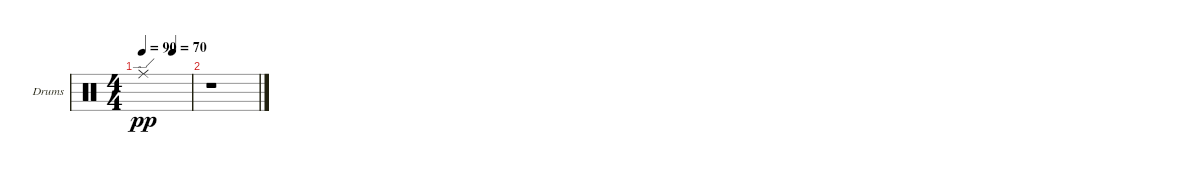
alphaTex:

\bracketExtendMode groupsimilarinstruments
\firstSystemTrackNameOrientation horizontal
\otherSystemsTrackNameOrientation horizontal
\track ("Drumkit" "Drums") {instrument percussion}
\staff {score}
\articulation defaults
\ts (4 4)
\tempo 90
\tempo (70 0.625)
\clef neutral
\ks c "Ride (edge)".1{dy pp}
|
r.1
